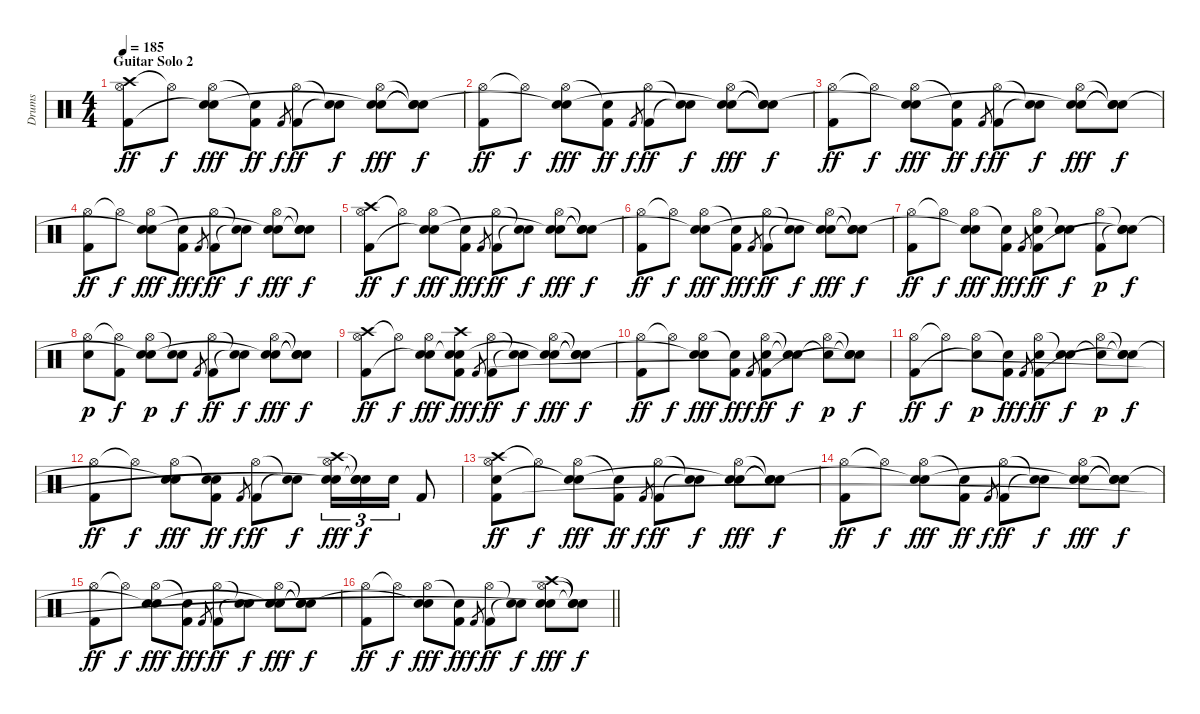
\track ("Drums" "Drums") {instrument percussion}
\staff {score}
\articulation defaults
\ts (4 4)
\section ("" "Guitar Solo 2")
\tempo 185
\clef neutral
\ks c
("Crash high (hit)" "Hi-Hat (open)" "Kick (hit) 2").8{dy ff} "Hi-Hat (open)"{t}.8{dy f} ("Hi-Hat (open)" "Electric Snare (hit)" "Snare (hit)"{t}).8{dy fff} ("Snare (hit)"{t} "Kick (hit) 2").8{dy ff} "Kick (hit) 2".8{gr dy f} ("Hi-Hat (open)" "Kick (hit) 2").8{dy ff} ("Snare (hit)"{t} "Snare (hit)"{t}).8{dy f} ("Hi-Hat (open)" "Electric Snare (hit)" "Snare (hit)"{t}).8{dy fff} ("Snare (hit)"{t} "Snare (hit)"{t} "Snare (hit)"{t}).8{dy f} |
("Hi-Hat (open)" "Kick (hit) 2").8{dy ff} "Hi-Hat (open)"{t}.8{dy f} ("Hi-Hat (open)" "Electric Snare (hit)" "Snare (hit)"{t}).8{dy fff} ("Snare (hit)"{t} "Kick (hit) 2").8{dy ff} "Kick (hit) 2".8{gr dy f} ("Hi-Hat (open)" "Kick (hit) 2").8{dy ff} ("Snare (hit)"{t} "Snare (hit)"{t}).8{dy f} ("Hi-Hat (open)" "Electric Snare (hit)" "Snare (hit)"{t}).8{dy fff} ("Snare (hit)"{t} "Snare (hit)"{t} "Snare (hit)"{t}).8{dy f} |
("Hi-Hat (open)" "Kick (hit) 2").8{dy ff} "Hi-Hat (open)"{t}.8{dy f} ("Hi-Hat (open)" "Electric Snare (hit)" "Snare (hit)"{t}).8{dy fff} ("Snare (hit)"{t} "Kick (hit) 2").8{dy ff} "Kick (hit) 2".8{gr dy f} ("Hi-Hat (open)" "Kick (hit) 2").8{dy ff} ("Snare (hit)"{t} "Snare (hit)"{t}).8{dy f} ("Hi-Hat (open)" "Electric Snare (hit)" "Snare (hit)"{t}).8{dy fff} ("Snare (hit)"{t} "Snare (hit)"{t} "Snare (hit)"{t}).8{dy f} |
("Hi-Hat (open)" "Kick (hit) 2").8{dy ff} "Hi-Hat (open)"{t}.8{dy f} ("Hi-Hat (open)" "Electric Snare (hit)" "Snare (hit)"{t}).8{dy fff} ("Snare (hit)"{t} "Kick (hit) 2").8{dy ff} "Kick (hit) 2".8{gr dy f} ("Hi-Hat (open)" "Kick (hit) 2").8{dy ff} ("Snare (hit)"{t} "Snare (hit)"{t}).8{dy f} ("Hi-Hat (open)" "Electric Snare (hit)" "Snare (hit)"{t}).8{dy fff} ("Snare (hit)"{t} "Electric Snare (hit)" "Snare (hit)"{t}).8{dy f} |
("Crash high (hit)" "Hi-Hat (open)" "Kick (hit) 2").8{dy ff} "Hi-Hat (open)"{t}.8{dy f} ("Hi-Hat (open)" "Electric Snare (hit)" "Snare (hit)"{t}).8{dy fff} ("Snare (hit)"{t} "Kick (hit) 2").8{dy ff} "Kick (hit) 2".8{gr dy f} ("Hi-Hat (open)" "Kick (hit) 2").8{dy ff} ("Snare (hit)"{t} "Snare (hit)"{t}).8{dy f} ("Hi-Hat (open)" "Electric Snare (hit)" "Snare (hit)"{t}).8{dy fff} ("Snare (hit)"{t} "Snare (hit)"{t} "Snare (hit)"{t}).8{dy f} |
("Hi-Hat (open)" "Kick (hit) 2").8{dy ff} "Hi-Hat (open)"{t}.8{dy f} ("Hi-Hat (open)" "Electric Snare (hit)" "Snare (hit)"{t}).8{dy fff} ("Snare (hit)"{t} "Kick (hit) 2").8{dy ff} "Kick (hit) 2".8{gr dy f} ("Hi-Hat (open)" "Kick (hit) 2").8{dy ff} ("Snare (hit)"{t} "Snare (hit)"{t}).8{dy f} ("Hi-Hat (open)" "Electric Snare (hit)" "Snare (hit)"{t}).8{dy fff} ("Snare (hit)"{t} "Snare (hit)"{t} "Snare (hit)"{t}).8{dy f} |
("Hi-Hat (open)" "Kick (hit) 2").8{dy ff} "Hi-Hat (open)"{t}.8{dy f} ("Hi-Hat (open)" "Electric Snare (hit)" "Snare (hit)"{t}).8{dy fff} ("Snare (hit)"{t} "Kick (hit) 2").8{dy ff} "Kick (hit) 2".8{gr dy f} ("Hi-Hat (open)" "Electric Snare (hit)" "Kick (hit) 2").8{dy ff} ("Snare (hit)"{t} "Electric Snare (hit)").8{dy f} ("Hi-Hat (open)" "Kick (hit) 2").8{dy p} ("Snare (hit)"{t} "Snare (hit)"{t} "Snare (hit)"{t}).8{dy f} |
("Hi-Hat (open)" "Electric Snare (hit)").8{dy p} ("Hi-Hat (open)"{t} "Kick (hit) 2").8{dy f} ("Hi-Hat (open)" "Electric Snare (hit)" "Snare (hit)"{t}).8{dy p} ("Snare (hit)"{t} "Electric Snare (hit)").8{dy f} "Kick (hit) 2".8{gr} ("Hi-Hat (open)" "Kick (hit) 2").8{dy ff} ("Snare (hit)"{t} "Snare (hit)"{t}).8{dy f} ("Hi-Hat (open)" "Electric Snare (hit)" "Snare (hit)"{t}).8{dy fff} ("Snare (hit)"{t} "Snare (hit)"{t} "Snare (hit)"{t}).8{dy f} |
("Crash high (hit)" "Hi-Hat (open)" "Kick (hit) 2").8{dy ff} "Hi-Hat (open)"{t}.8{dy f} ("Hi-Hat (open)" "Electric Snare (hit)" "Snare (hit)"{t}).8{dy fff} ("Crash high (hit)" "Snare (hit)"{t} "Electric Snare (hit)" "Kick (hit) 2").8{dy ff} "Kick (hit) 2".8{gr dy f} ("Hi-Hat (open)" "Kick (hit) 2").8{dy ff} ("Snare (hit)"{t} "Snare (hit)"{t}).8{dy f} ("Hi-Hat (open)" "Electric Snare (hit)" "Snare (hit)"{t}).8{dy fff} ("Snare (hit)"{t} "Snare (hit)"{t} "Snare (hit)"{t}).8{dy f} |
("Hi-Hat (open)" "Kick (hit) 2").8{dy ff} "Hi-Hat (open)"{t}.8{dy f} ("Hi-Hat (open)" "Electric Snare (hit)" "Snare (hit)"{t}).8{dy fff} ("Snare (hit)"{t} "Kick (hit) 2").8{dy ff} "Kick (hit) 2".8{gr dy f} ("Hi-Hat (open)" "Electric Snare (hit)" "Kick (hit) 2").8{dy ff} ("Snare (hit)"{t} "Snare (hit)"{t}).8{dy f} ("Hi-Hat (open)" "Snare (hit)"{t}).8{dy p} ("Snare (hit)"{t} "Snare (hit)"{t} "Snare (hit)"{t}).8{dy f} |
("Hi-Hat (open)" "Kick (hit) 2").8{dy ff} "Hi-Hat (open)"{t}.8{dy f} ("Hi-Hat (open)" "Snare (hit)"{t}).8{dy p} ("Snare (hit)"{t} "Kick (hit) 2").8{dy ff} "Kick (hit) 2".8{gr dy f} ("Hi-Hat (open)" "Electric Snare (hit)" "Kick (hit) 2").8{dy ff} ("Snare (hit)"{t} "Electric Snare (hit)").8{dy f} ("Hi-Hat (open)" "Snare (hit)"{t}).8{dy p} ("Snare (hit)"{t} "Snare (hit)"{t} "Snare (hit)"{t}).8{dy f} |
("Hi-Hat (open)" "Kick (hit) 2").8{dy ff} "Hi-Hat (open)"{t}.8{dy f} ("Hi-Hat (open)" "Electric Snare (hit)" "Snare (hit)"{t}).8{dy fff} ("Snare (hit)"{t} "Electric Snare (hit)" "Kick (hit) 2").8{dy ff} "Kick (hit) 2".8{gr dy f} ("Hi-Hat (open)" "Kick (hit) 2").8{dy ff} ("Snare (hit)"{t} "Snare (hit)"{t}).8{dy f} ("Crash high (hit)" "Hi-Hat (open)" "Electric Snare (hit)" "Snare (hit)"{t}).16{tu (3 2) dy fff} ("Snare (hit)"{t} "Electric Snare (hit)" "Snare (hit)"{t}).16{tu (3 2) dy f} "Electric Snare (hit)".16{tu (3 2)} "Kick (hit) 2".8 |
("Crash high (hit)" "Hi-Hat (open)" "Electric Snare (hit)" "Kick (hit) 2").8{dy ff} "Hi-Hat (open)"{t}.8{dy f} ("Hi-Hat (open)" "Electric Snare (hit)" "Snare (hit)"{t}).8{dy fff} ("Snare (hit)"{t} "Kick (hit) 2").8{dy ff} "Kick (hit) 2".8{gr dy f} ("Hi-Hat (open)" "Kick (hit) 2").8{dy ff} ("Snare (hit)"{t} "Snare (hit)"{t}).8{dy f} ("Hi-Hat (open)" "Electric Snare (hit)" "Snare (hit)"{t}).8{dy fff} ("Snare (hit)"{t} "Snare (hit)"{t} "Snare (hit)"{t}).8{dy f} |
("Hi-Hat (open)" "Kick (hit) 2").8{dy ff} "Hi-Hat (open)"{t}.8{dy f} ("Hi-Hat (open)" "Electric Snare (hit)" "Snare (hit)"{t}).8{dy fff} ("Snare (hit)"{t} "Kick (hit) 2").8{dy ff} "Kick (hit) 2".8{gr dy f} ("Hi-Hat (open)" "Kick (hit) 2").8{dy ff} ("Snare (hit)"{t} "Snare (hit)"{t}).8{dy f} ("Hi-Hat (open)" "Electric Snare (hit)" "Snare (hit)"{t}).8{dy fff} ("Snare (hit)"{t} "Snare (hit)"{t} "Snare (hit)"{t}).8{dy f} |
("Hi-Hat (open)" "Kick (hit) 2").8{dy ff} "Hi-Hat (open)"{t}.8{dy f} ("Hi-Hat (open)" "Electric Snare (hit)" "Snare (hit)"{t}).8{dy fff} ("Snare (hit)"{t} "Kick (hit) 2").8{dy ff} "Kick (hit) 2".8{gr dy f} ("Hi-Hat (open)" "Kick (hit) 2").8{dy ff} ("Snare (hit)"{t} "Snare (hit)"{t}).8{dy f} ("Hi-Hat (open)" "Electric Snare (hit)" "Snare (hit)"{t}).8{dy fff} ("Snare (hit)"{t} "Snare (hit)"{t} "Snare (hit)"{t}).8{dy f} |
\barLineRight lightlight
("Hi-Hat (open)" "Kick (hit) 2").8{dy ff} "Hi-Hat (open)"{t}.8{dy f} ("Hi-Hat (open)" "Electric Snare (hit)" "Snare (hit)"{t}).8{dy fff} ("Snare (hit)"{t} "Kick (hit) 2").8{dy ff} "Kick (hit) 2".8{gr dy f} ("Hi-Hat (open)" "Kick (hit) 2").8{dy ff} ("Snare (hit)"{t} "Snare (hit)"{t}).8{dy f} ("Crash high (hit)" "Hi-Hat (open)" "Electric Snare (hit)" "Snare (hit)"{t}).8{dy fff} ("Snare (hit)"{t} "Snare (hit)"{t} "Snare (hit)"{t}).8{dy f}
